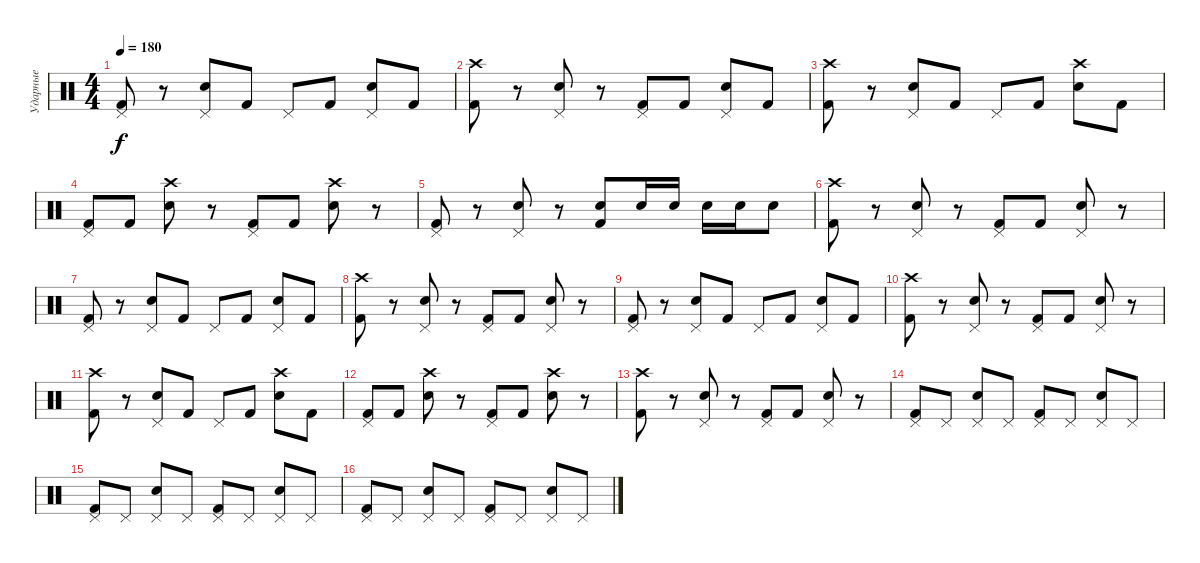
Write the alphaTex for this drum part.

\track ("Ударные" "Ударные") {instrument percussion}
\staff {score}
\articulation defaults
\ts (4 4)
\tempo 180
\clef neutral
\ks c
("Pedal Hi-Hat (hit)" "Kick (hit) 2").8{dy f} r.8 ("Pedal Hi-Hat (hit)" "Electric Snare (hit)").8 "Kick (hit) 2".8 "Pedal Hi-Hat (hit)".8 "Kick (hit) 2".8 ("Pedal Hi-Hat (hit)" "Electric Snare (hit)").8 "Kick (hit) 2".8 |
("Crash high (hit)" "Kick (hit) 2").8 r.8 ("Pedal Hi-Hat (hit)" "Electric Snare (hit)").8 r.8 ("Pedal Hi-Hat (hit)" "Kick (hit) 2").8 "Kick (hit) 2".8 ("Pedal Hi-Hat (hit)" "Electric Snare (hit)").8 "Kick (hit) 2".8 |
("Crash high (hit)" "Kick (hit) 2").8 r.8 ("Pedal Hi-Hat (hit)" "Electric Snare (hit)").8 "Kick (hit) 2".8 "Pedal Hi-Hat (hit)".8 "Kick (hit) 2".8 ("Crash high (hit)" "Electric Snare (hit)").8 "Kick (hit) 2".8 |
("Pedal Hi-Hat (hit)" "Kick (hit) 2").8 "Kick (hit) 2".8 ("Crash high (hit)" "Electric Snare (hit)").8 r.8 ("Pedal Hi-Hat (hit)" "Kick (hit) 2").8 "Kick (hit) 2".8 ("Crash high (hit)" "Electric Snare (hit)").8 r.8 |
("Pedal Hi-Hat (hit)" "Kick (hit) 2").8 r.8 ("Pedal Hi-Hat (hit)" "Electric Snare (hit)").8 r.8 ("Electric Snare (hit)" "Kick (hit) 2").8 "Electric Snare (hit)".16 "Electric Snare (hit)".16 "Electric Snare (hit)".16 "Electric Snare (hit)".16 "Electric Snare (hit)".8 |
("Crash high (hit)" "Kick (hit) 2").8 r.8 ("Pedal Hi-Hat (hit)" "Electric Snare (hit)").8 r.8 ("Pedal Hi-Hat (hit)" "Kick (hit) 2").8 "Kick (hit) 2".8 ("Pedal Hi-Hat (hit)" "Electric Snare (hit)").8 r.8 |
("Pedal Hi-Hat (hit)" "Kick (hit) 2").8 r.8 ("Pedal Hi-Hat (hit)" "Electric Snare (hit)").8 "Kick (hit) 2".8 "Pedal Hi-Hat (hit)".8 "Kick (hit) 2".8 ("Pedal Hi-Hat (hit)" "Electric Snare (hit)").8 "Kick (hit) 2".8 |
("Crash high (hit)" "Kick (hit) 2").8 r.8 ("Pedal Hi-Hat (hit)" "Electric Snare (hit)").8 r.8 ("Pedal Hi-Hat (hit)" "Kick (hit) 2").8 "Kick (hit) 2".8 ("Pedal Hi-Hat (hit)" "Electric Snare (hit)").8 r.8 |
("Pedal Hi-Hat (hit)" "Kick (hit) 2").8 r.8 ("Pedal Hi-Hat (hit)" "Electric Snare (hit)").8 "Kick (hit) 2".8 "Pedal Hi-Hat (hit)".8 "Kick (hit) 2".8 ("Pedal Hi-Hat (hit)" "Electric Snare (hit)").8 "Kick (hit) 2".8 |
("Crash high (hit)" "Kick (hit) 2").8 r.8 ("Pedal Hi-Hat (hit)" "Electric Snare (hit)").8 r.8 ("Pedal Hi-Hat (hit)" "Kick (hit) 2").8 "Kick (hit) 2".8 ("Pedal Hi-Hat (hit)" "Electric Snare (hit)").8 r.8 |
("Crash high (hit)" "Kick (hit) 2").8 r.8 ("Pedal Hi-Hat (hit)" "Electric Snare (hit)").8 "Kick (hit) 2".8 "Pedal Hi-Hat (hit)".8 "Kick (hit) 2".8 ("Crash high (hit)" "Electric Snare (hit)").8 "Kick (hit) 2".8 |
("Pedal Hi-Hat (hit)" "Kick (hit) 2").8 "Kick (hit) 2".8 ("Crash high (hit)" "Electric Snare (hit)").8 r.8 ("Pedal Hi-Hat (hit)" "Kick (hit) 2").8 "Kick (hit) 2".8 ("Crash high (hit)" "Electric Snare (hit)").8 r.8 |
("Crash high (hit)" "Kick (hit) 2").8 r.8 ("Pedal Hi-Hat (hit)" "Electric Snare (hit)").8 r.8 ("Pedal Hi-Hat (hit)" "Kick (hit) 2").8 "Kick (hit) 2".8 ("Pedal Hi-Hat (hit)" "Electric Snare (hit)").8 r.8 |
("Pedal Hi-Hat (hit)" "Kick (hit) 2").8 "Pedal Hi-Hat (hit)".8 ("Pedal Hi-Hat (hit)" "Electric Snare (hit)").8 "Pedal Hi-Hat (hit)".8 ("Pedal Hi-Hat (hit)" "Kick (hit) 2").8 "Pedal Hi-Hat (hit)".8 ("Pedal Hi-Hat (hit)" "Electric Snare (hit)").8 "Pedal Hi-Hat (hit)".8 |
("Pedal Hi-Hat (hit)" "Kick (hit) 2").8 "Pedal Hi-Hat (hit)".8 ("Pedal Hi-Hat (hit)" "Electric Snare (hit)").8 "Pedal Hi-Hat (hit)".8 ("Pedal Hi-Hat (hit)" "Kick (hit) 2").8 "Pedal Hi-Hat (hit)".8 ("Pedal Hi-Hat (hit)" "Electric Snare (hit)").8 "Pedal Hi-Hat (hit)".8 |
("Pedal Hi-Hat (hit)" "Kick (hit) 2").8 "Pedal Hi-Hat (hit)".8 ("Pedal Hi-Hat (hit)" "Electric Snare (hit)").8 "Pedal Hi-Hat (hit)".8 ("Pedal Hi-Hat (hit)" "Kick (hit) 2").8 "Pedal Hi-Hat (hit)".8 ("Pedal Hi-Hat (hit)" "Electric Snare (hit)").8 "Pedal Hi-Hat (hit)".8
